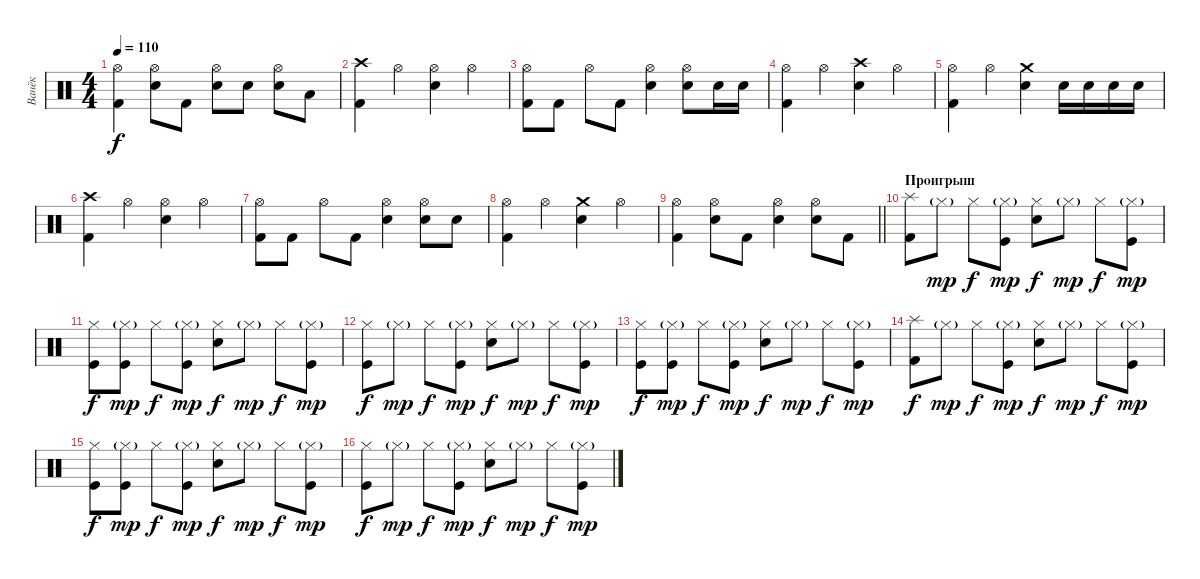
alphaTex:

\track ("Ванёк" "Ванёк") {instrument percussion}
\staff {score}
\articulation defaults
\ts (4 4)
\tempo 110
\clef neutral
\ks c
("Hi-Hat (open)" "Kick (hit) 2").4{dy f} ("Hi-Hat (open)" "Electric Snare (hit)").8 "Kick (hit) 2".8 ("Hi-Hat (open)" "Electric Snare (hit)").8 "Electric Snare (hit)".8 ("Hi-Hat (open)" "Electric Snare (hit)").8 "Low Floor Tom (hit)".8 |
("Crash high (hit)" "Kick (hit) 2").4 "Hi-Hat (open)".4 ("Hi-Hat (open)" "Electric Snare (hit)").4 "Hi-Hat (open)".4 |
("Hi-Hat (open)" "Kick (hit) 2").8 "Kick (hit) 2".8 "Hi-Hat (open)".8 "Kick (hit) 2".8 ("Hi-Hat (open)" "Electric Snare (hit)").4 ("Hi-Hat (open)" "Electric Snare (hit)").8 "Electric Snare (hit)".16 "Electric Snare (hit)".16 |
("Hi-Hat (open)" "Kick (hit) 2").4 "Hi-Hat (open)".4 ("Crash high (hit)" "Electric Snare (hit)").4 "Hi-Hat (open)".4 |
("Hi-Hat (open)" "Kick (hit) 2").4 "Hi-Hat (open)".4 ("Crash medium (hit)" "Electric Snare (hit)").4 "Electric Snare (hit)".16 "Electric Snare (hit)".16 "Electric Snare (hit)".16 "Electric Snare (hit)".16 |
("Crash high (hit)" "Kick (hit) 2").4 "Hi-Hat (open)".4 ("Hi-Hat (open)" "Electric Snare (hit)").4 "Hi-Hat (open)".4 |
("Hi-Hat (open)" "Kick (hit) 2").8 "Kick (hit) 2".8 "Hi-Hat (open)".8 "Kick (hit) 2".8 ("Hi-Hat (open)" "Electric Snare (hit)").4 ("Hi-Hat (open)" "Electric Snare (hit)").8 "Electric Snare (hit)".8 |
("Hi-Hat (open)" "Kick (hit) 2").4 "Hi-Hat (open)".4 ("Crash medium (hit)" "Electric Snare (hit)").4 "Hi-Hat (open)".4 |
\barLineRight lightlight
("Hi-Hat (open)" "Kick (hit) 2").4 ("Hi-Hat (open)" "Electric Snare (hit)").8 "Kick (hit) 2".8 ("Hi-Hat (open)" "Electric Snare (hit)").4 ("Hi-Hat (open)" "Electric Snare (hit)").8 "Kick (hit) 2".8 |
\section ("" "Проигрыш")
("Splash (hit)" "Kick (hit) 2").8 "Hi-Hat (closed)"{g}.8{dy mp} "Hi-Hat (closed)".8{dy f} ("Kick (hit)" "Hi-Hat (closed)"{g}).8{dy mp} ("Hi-Hat (closed)" "Electric Snare (hit)").8{dy f} "Hi-Hat (closed)"{g}.8{dy mp} "Hi-Hat (closed)".8{dy f} ("Kick (hit)" "Hi-Hat (closed)"{g}).8{dy mp} |
("Kick (hit)" "Hi-Hat (closed)").8{dy f} ("Kick (hit)" "Hi-Hat (closed)"{g}).8{dy mp} "Hi-Hat (closed)".8{dy f} ("Kick (hit)" "Hi-Hat (closed)"{g}).8{dy mp} ("Hi-Hat (closed)" "Electric Snare (hit)").8{dy f} "Hi-Hat (closed)"{g}.8{dy mp} "Hi-Hat (closed)".8{dy f} ("Kick (hit)" "Hi-Hat (closed)"{g}).8{dy mp} |
("Kick (hit)" "Hi-Hat (closed)").8{dy f} "Hi-Hat (closed)"{g}.8{dy mp} "Hi-Hat (closed)".8{dy f} ("Kick (hit)" "Hi-Hat (closed)"{g}).8{dy mp} ("Hi-Hat (closed)" "Electric Snare (hit)").8{dy f} "Hi-Hat (closed)"{g}.8{dy mp} "Hi-Hat (closed)".8{dy f} ("Kick (hit)" "Hi-Hat (closed)"{g}).8{dy mp} |
("Kick (hit)" "Hi-Hat (closed)").8{dy f} ("Kick (hit)" "Hi-Hat (closed)"{g}).8{dy mp} "Hi-Hat (closed)".8{dy f} ("Kick (hit)" "Hi-Hat (closed)"{g}).8{dy mp} ("Hi-Hat (closed)" "Electric Snare (hit)").8{dy f} "Hi-Hat (closed)"{g}.8{dy mp} "Hi-Hat (closed)".8{dy f} ("Kick (hit)" "Hi-Hat (closed)"{g}).8{dy mp} |
("Splash (hit)" "Kick (hit) 2").8{dy f} "Hi-Hat (closed)"{g}.8{dy mp} "Hi-Hat (closed)".8{dy f} ("Kick (hit)" "Hi-Hat (closed)"{g}).8{dy mp} ("Hi-Hat (closed)" "Electric Snare (hit)").8{dy f} "Hi-Hat (closed)"{g}.8{dy mp} "Hi-Hat (closed)".8{dy f} ("Kick (hit)" "Hi-Hat (closed)"{g}).8{dy mp} |
("Kick (hit)" "Hi-Hat (closed)").8{dy f} ("Kick (hit)" "Hi-Hat (closed)"{g}).8{dy mp} "Hi-Hat (closed)".8{dy f} ("Kick (hit)" "Hi-Hat (closed)"{g}).8{dy mp} ("Hi-Hat (closed)" "Electric Snare (hit)").8{dy f} "Hi-Hat (closed)"{g}.8{dy mp} "Hi-Hat (closed)".8{dy f} ("Kick (hit)" "Hi-Hat (closed)"{g}).8{dy mp} |
("Kick (hit)" "Hi-Hat (closed)").8{dy f} "Hi-Hat (closed)"{g}.8{dy mp} "Hi-Hat (closed)".8{dy f} ("Kick (hit)" "Hi-Hat (closed)"{g}).8{dy mp} ("Hi-Hat (closed)" "Electric Snare (hit)").8{dy f} "Hi-Hat (closed)"{g}.8{dy mp} "Hi-Hat (closed)".8{dy f} ("Kick (hit)" "Hi-Hat (closed)"{g}).8{dy mp}
